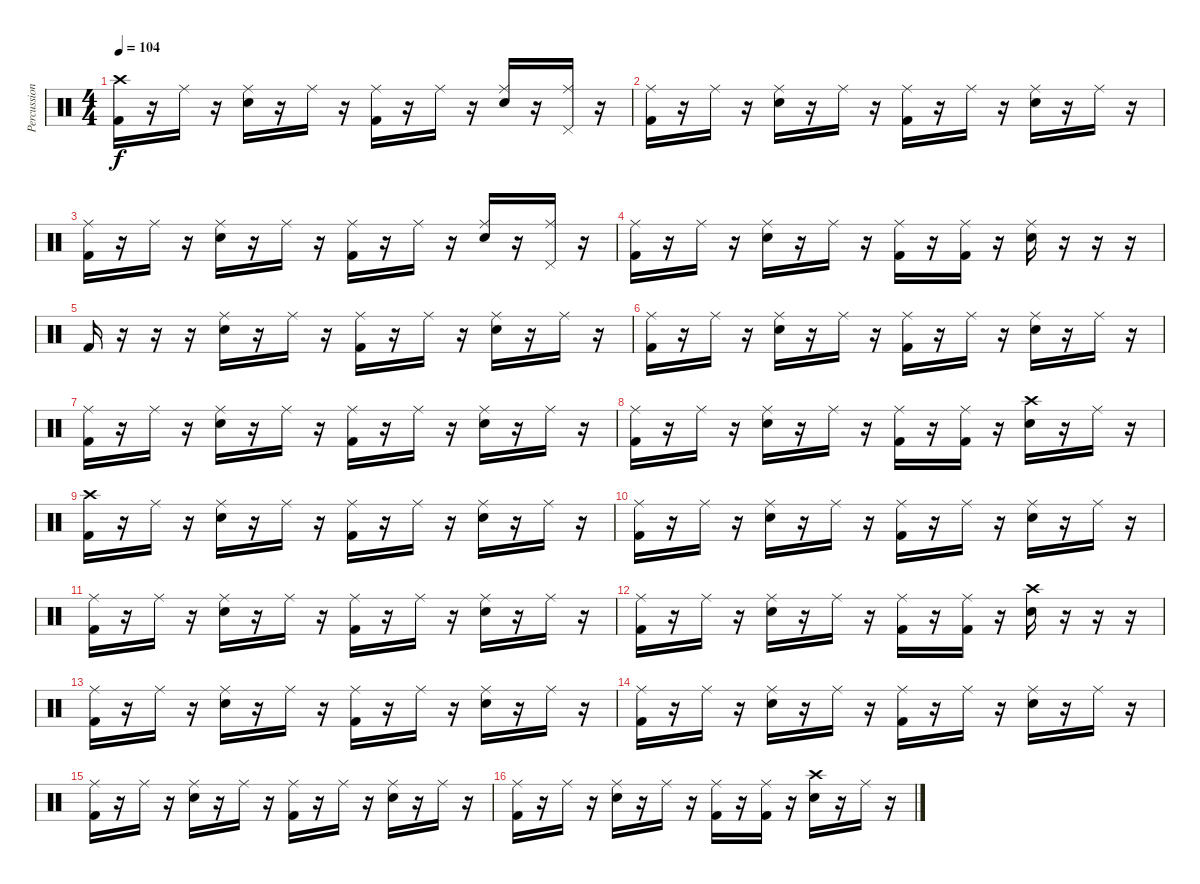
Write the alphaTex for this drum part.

\track ("Percussion" "Percussion") {instrument percussion}
\staff {score}
\articulation defaults
\ts (4 4)
\tempo 104
\clef neutral
\ks c
("Crash high (hit)" "Kick (hit) 2").16{dy f} r.16 "Ride (middle)".16 r.16 ("Ride (middle)" "Snare (hit) 2").16 r.16 "Ride (middle)".16 r.16 ("Ride (middle)" "Kick (hit) 2").16 r.16 "Ride (middle)".16 r.16 ("Ride (middle)" "Snare (hit) 2").16 r.16 ("Ride (middle)" "Pedal Hi-Hat (hit)").16 r.16 |
("Ride (middle)" "Kick (hit) 2").16 r.16 "Ride (middle)".16 r.16 ("Ride (middle)" "Snare (hit) 2").16 r.16 "Ride (middle)".16 r.16 ("Ride (middle)" "Kick (hit) 2").16 r.16 "Ride (middle)".16 r.16 ("Ride (middle)" "Snare (hit) 2").16 r.16 "Ride (middle)".16 r.16 |
("Ride (middle)" "Kick (hit) 2").16 r.16 "Ride (middle)".16 r.16 ("Ride (middle)" "Snare (hit) 2").16 r.16 "Ride (middle)".16 r.16 ("Ride (middle)" "Kick (hit) 2").16 r.16 "Ride (middle)".16 r.16 ("Ride (middle)" "Snare (hit) 2").16 r.16 ("Ride (middle)" "Pedal Hi-Hat (hit)").16 r.16 |
("Ride (middle)" "Kick (hit) 2").16 r.16 "Ride (middle)".16 r.16 ("Ride (middle)" "Snare (hit) 2").16 r.16 "Ride (middle)".16 r.16 ("Ride (middle)" "Kick (hit) 2").16 r.16 ("Ride (middle)" "Kick (hit) 2").16 r.16 ("Ride (middle)" "Snare (hit) 2").16 r.16 r.16 r.16 |
"Kick (hit) 2".16 r.16 r.16 r.16 ("Ride (middle)" "Snare (hit) 2").16 r.16 "Ride (middle)".16 r.16 ("Ride (middle)" "Kick (hit) 2").16 r.16 "Ride (middle)".16 r.16 ("Ride (middle)" "Snare (hit) 2").16 r.16 "Ride (middle)".16 r.16 |
("Ride (middle)" "Kick (hit) 2").16 r.16 "Ride (middle)".16 r.16 ("Ride (middle)" "Snare (hit) 2").16 r.16 "Ride (middle)".16 r.16 ("Ride (middle)" "Kick (hit) 2").16 r.16 "Ride (middle)".16 r.16 ("Ride (middle)" "Snare (hit) 2").16 r.16 "Ride (middle)".16 r.16 |
("Ride (middle)" "Kick (hit) 2").16 r.16 "Ride (middle)".16 r.16 ("Ride (middle)" "Snare (hit) 2").16 r.16 "Ride (middle)".16 r.16 ("Ride (middle)" "Kick (hit) 2").16 r.16 "Ride (middle)".16 r.16 ("Ride (middle)" "Snare (hit) 2").16 r.16 "Ride (middle)".16 r.16 |
("Ride (middle)" "Kick (hit) 2").16 r.16 "Ride (middle)".16 r.16 ("Ride (middle)" "Snare (hit) 2").16 r.16 "Ride (middle)".16 r.16 ("Ride (middle)" "Kick (hit) 2").16 r.16 ("Ride (middle)" "Kick (hit) 2").16 r.16 ("Crash high (hit)" "Snare (hit) 2").16 r.16 "Ride (middle)".16 r.16 |
("Crash high (hit)" "Kick (hit) 2").16 r.16 "Ride (middle)".16 r.16 ("Ride (middle)" "Snare (hit) 2").16 r.16 "Ride (middle)".16 r.16 ("Ride (middle)" "Kick (hit) 2").16 r.16 "Ride (middle)".16 r.16 ("Ride (middle)" "Snare (hit) 2").16 r.16 "Ride (middle)".16 r.16 |
("Ride (middle)" "Kick (hit) 2").16 r.16 "Ride (middle)".16 r.16 ("Ride (middle)" "Snare (hit) 2").16 r.16 "Ride (middle)".16 r.16 ("Ride (middle)" "Kick (hit) 2").16 r.16 "Ride (middle)".16 r.16 ("Ride (middle)" "Snare (hit) 2").16 r.16 "Ride (middle)".16 r.16 |
("Ride (middle)" "Kick (hit) 2").16 r.16 "Ride (middle)".16 r.16 ("Ride (middle)" "Snare (hit) 2").16 r.16 "Ride (middle)".16 r.16 ("Ride (middle)" "Kick (hit) 2").16 r.16 "Ride (middle)".16 r.16 ("Ride (middle)" "Snare (hit) 2").16 r.16 "Ride (middle)".16 r.16 |
("Ride (middle)" "Kick (hit) 2").16 r.16 "Ride (middle)".16 r.16 ("Ride (middle)" "Snare (hit) 2").16 r.16 "Ride (middle)".16 r.16 ("Ride (middle)" "Kick (hit) 2").16 r.16 ("Ride (middle)" "Kick (hit) 2").16 r.16 ("Crash high (hit)" "Snare (hit) 2").16 r.16 r.16 r.16 |
("Ride (middle)" "Kick (hit) 2").16 r.16 "Ride (middle)".16 r.16 ("Ride (middle)" "Snare (hit) 2").16 r.16 "Ride (middle)".16 r.16 ("Ride (middle)" "Kick (hit) 2").16 r.16 "Ride (middle)".16 r.16 ("Ride (middle)" "Snare (hit) 2").16 r.16 "Ride (middle)".16 r.16 |
("Ride (middle)" "Kick (hit) 2").16 r.16 "Ride (middle)".16 r.16 ("Ride (middle)" "Snare (hit) 2").16 r.16 "Ride (middle)".16 r.16 ("Ride (middle)" "Kick (hit) 2").16 r.16 "Ride (middle)".16 r.16 ("Ride (middle)" "Snare (hit) 2").16 r.16 "Ride (middle)".16 r.16 |
("Ride (middle)" "Kick (hit) 2").16 r.16 "Ride (middle)".16 r.16 ("Ride (middle)" "Snare (hit) 2").16 r.16 "Ride (middle)".16 r.16 ("Ride (middle)" "Kick (hit) 2").16 r.16 "Ride (middle)".16 r.16 ("Ride (middle)" "Snare (hit) 2").16 r.16 "Ride (middle)".16 r.16 |
("Ride (middle)" "Kick (hit) 2").16 r.16 "Ride (middle)".16 r.16 ("Ride (middle)" "Snare (hit) 2").16 r.16 "Ride (middle)".16 r.16 ("Ride (middle)" "Kick (hit) 2").16 r.16 ("Ride (middle)" "Kick (hit) 2").16 r.16 ("Crash high (hit)" "Snare (hit) 2").16 r.16 "Ride (middle)".16 r.16
